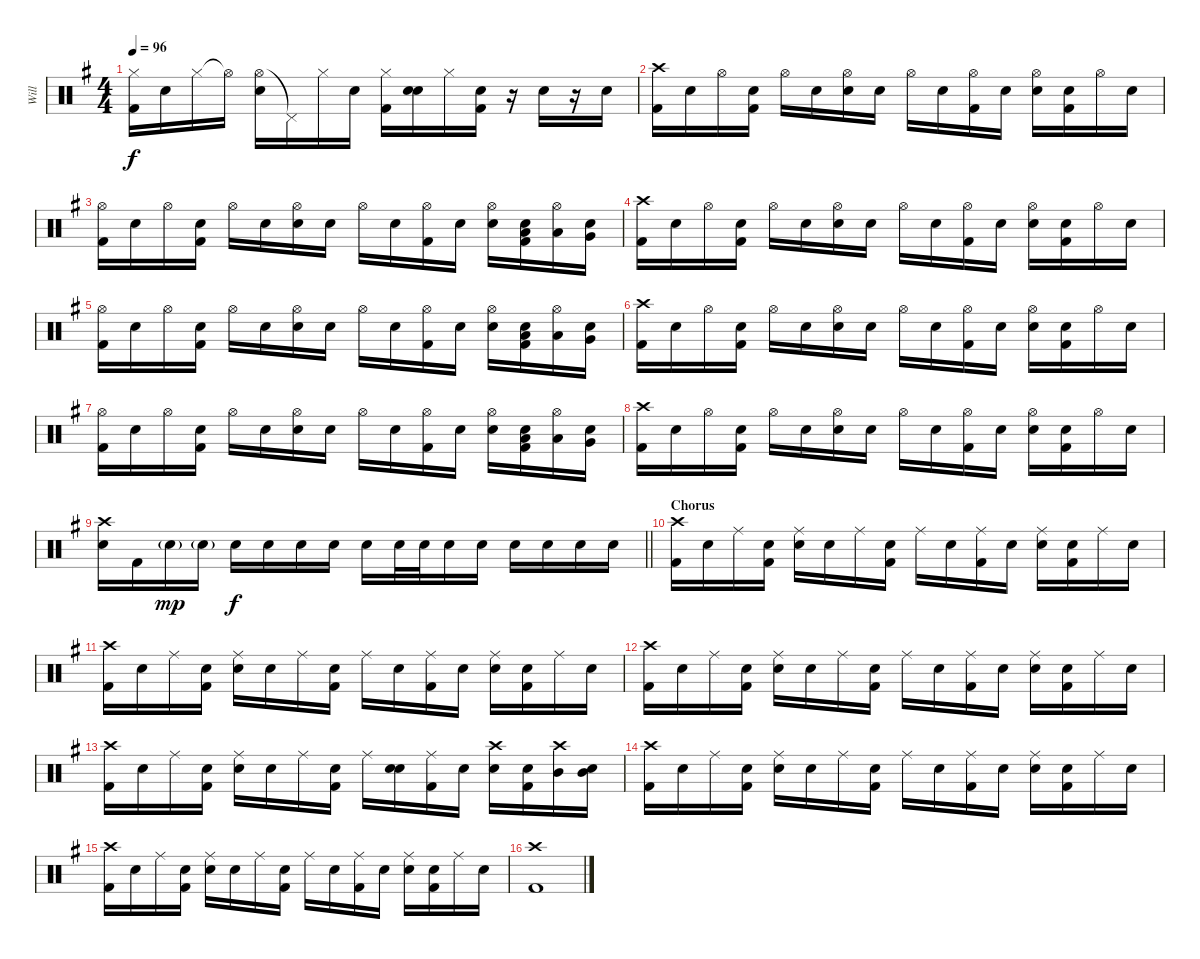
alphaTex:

\track ("Will" "Will") {instrument percussion}
\staff {score}
\articulation defaults
\ts (4 4)
\tempo 96
\clef neutral
\ks g
("Hi-Hat (closed)" "Kick (hit) 2").16{dy f} "Snare (hit)".16 "Hi-Hat (closed)".16 "Hi-Hat (open)"{t}.16 ("Hi-Hat (open)" "Snare (hit) 2").16 "Pedal Hi-Hat (hit)"{t}.16 "Hi-Hat (closed)".16 "Snare (hit)".16 ("Hi-Hat (closed)" "Kick (hit) 2").16 ("Snare (hit)" "Snare (hit) 2").16 "Hi-Hat (closed)".16 ("Snare (hit)" "Kick (hit) 2").16 r.16 "Snare (hit)".16 r.16 "Snare (hit)".16 |
("Crash high (hit)" "Kick (hit) 2").16 "Snare (hit)".16 "Hi-Hat (open)".16 ("Snare (hit)" "Kick (hit) 2").16 "Hi-Hat (open)".16 "Snare (hit)".16 ("Hi-Hat (open)" "Snare (hit) 2").16 "Snare (hit)".16 "Hi-Hat (open)".16 "Snare (hit)".16 ("Hi-Hat (open)" "Kick (hit) 2").16 "Snare (hit)".16 ("Hi-Hat (open)" "Snare (hit) 2").16 ("Snare (hit)" "Kick (hit) 2").16 "Hi-Hat (open)".16 "Snare (hit)".16 |
("Hi-Hat (open)" "Kick (hit) 2").16 "Snare (hit)".16 "Hi-Hat (open)".16 ("Snare (hit)" "Kick (hit) 2").16 "Hi-Hat (open)".16 "Snare (hit)".16 ("Hi-Hat (open)" "Snare (hit) 2").16 "Snare (hit)".16 "Hi-Hat (open)".16 "Snare (hit)".16 ("Hi-Hat (open)" "Kick (hit) 2").16 "Snare (hit)".16 ("Hi-Hat (open)" "Snare (hit) 2").16 ("Snare (hit)" "Low Tom (hit)" "Kick (hit) 2").16 ("Hi-Hat (open)" "Low Tom (hit)").16 ("Snare (hit)" "Very Low Tom (hit)").16 |
("Crash high (hit)" "Kick (hit) 2").16 "Snare (hit)".16 "Hi-Hat (open)".16 ("Snare (hit)" "Kick (hit) 2").16 "Hi-Hat (open)".16 "Snare (hit)".16 ("Hi-Hat (open)" "Snare (hit) 2").16 "Snare (hit)".16 "Hi-Hat (open)".16 "Snare (hit)".16 ("Hi-Hat (open)" "Kick (hit) 2").16 "Snare (hit)".16 ("Hi-Hat (open)" "Snare (hit) 2").16 ("Snare (hit)" "Kick (hit) 2").16 "Hi-Hat (open)".16 "Snare (hit)".16 |
("Hi-Hat (open)" "Kick (hit) 2").16 "Snare (hit)".16 "Hi-Hat (open)".16 ("Snare (hit)" "Kick (hit) 2").16 "Hi-Hat (open)".16 "Snare (hit)".16 ("Hi-Hat (open)" "Snare (hit) 2").16 "Snare (hit)".16 "Hi-Hat (open)".16 "Snare (hit)".16 ("Hi-Hat (open)" "Kick (hit) 2").16 "Snare (hit)".16 ("Hi-Hat (open)" "Snare (hit) 2").16 ("Snare (hit)" "Low Tom (hit)" "Kick (hit) 2").16 ("Hi-Hat (open)" "Low Tom (hit)").16 ("Snare (hit)" "Very Low Tom (hit)").16 |
("Crash high (hit)" "Kick (hit) 2").16 "Snare (hit)".16 "Hi-Hat (open)".16 ("Snare (hit)" "Kick (hit) 2").16 "Hi-Hat (open)".16 "Snare (hit)".16 ("Hi-Hat (open)" "Snare (hit) 2").16 "Snare (hit)".16 "Hi-Hat (open)".16 "Snare (hit)".16 ("Hi-Hat (open)" "Kick (hit) 2").16 "Snare (hit)".16 ("Hi-Hat (open)" "Snare (hit) 2").16 ("Snare (hit)" "Kick (hit) 2").16 "Hi-Hat (open)".16 "Snare (hit)".16 |
("Hi-Hat (open)" "Kick (hit) 2").16 "Snare (hit)".16 "Hi-Hat (open)".16 ("Snare (hit)" "Kick (hit) 2").16 "Hi-Hat (open)".16 "Snare (hit)".16 ("Hi-Hat (open)" "Snare (hit) 2").16 "Snare (hit)".16 "Hi-Hat (open)".16 "Snare (hit)".16 ("Hi-Hat (open)" "Kick (hit) 2").16 "Snare (hit)".16 ("Hi-Hat (open)" "Snare (hit) 2").16 ("Snare (hit)" "Low Tom (hit)" "Kick (hit) 2").16 ("Hi-Hat (open)" "Low Tom (hit)").16 ("Snare (hit)" "Very Low Tom (hit)").16 |
("Crash high (hit)" "Kick (hit) 2").16 "Snare (hit)".16 "Hi-Hat (open)".16 ("Snare (hit)" "Kick (hit) 2").16 "Hi-Hat (open)".16 "Snare (hit)".16 ("Hi-Hat (open)" "Snare (hit) 2").16 "Snare (hit)".16 "Hi-Hat (open)".16 "Snare (hit)".16 ("Hi-Hat (open)" "Kick (hit) 2").16 "Snare (hit)".16 ("Hi-Hat (open)" "Snare (hit) 2").16 ("Snare (hit)" "Kick (hit) 2").16 "Hi-Hat (open)".16 "Snare (hit)".16 |
\barLineRight lightlight
("Crash high (hit)" "Snare (hit) 2").16 "Kick (hit) 2".16 "Snare (hit) 2"{g}.16{dy mp} "Snare (hit) 2"{g}.16 "Snare (hit) 2".16{dy f} "Snare (hit) 2".16 "Snare (hit) 2".16 "Snare (hit) 2".16 "Snare (hit) 2".16 "Snare (hit) 2".32 "Snare (hit) 2".32 "Snare (hit) 2".16 "Snare (hit) 2".16 "Snare (hit) 2".16 "Snare (hit) 2".16 "Snare (hit) 2".16 "Snare (hit) 2".16 |
\section ("" "Chorus")
("Crash high (hit)" "Kick (hit) 2").16 "Snare (hit)".16 "Ride (middle)".16 ("Snare (hit)" "Kick (hit) 2").16 ("Ride (middle)" "Snare (hit) 2").16 "Snare (hit)".16 "Ride (middle)".16 ("Snare (hit)" "Kick (hit) 2").16 "Ride (middle)".16 "Snare (hit)".16 ("Ride (middle)" "Kick (hit) 2").16 "Snare (hit)".16 ("Ride (middle)" "Snare (hit) 2").16 ("Snare (hit)" "Kick (hit) 2").16 "Ride (middle)".16 "Snare (hit)".16 |
("Crash high (hit)" "Kick (hit) 2").16 "Snare (hit)".16 "Ride (middle)".16 ("Snare (hit)" "Kick (hit) 2").16 ("Ride (middle)" "Snare (hit) 2").16 "Snare (hit)".16 "Ride (middle)".16 ("Snare (hit)" "Kick (hit) 2").16 "Ride (middle)".16 "Snare (hit)".16 ("Ride (middle)" "Kick (hit) 2").16 "Snare (hit)".16 ("Ride (middle)" "Snare (hit) 2").16 ("Snare (hit)" "Kick (hit) 2").16 "Ride (middle)".16 "Snare (hit)".16 |
("Crash high (hit)" "Kick (hit) 2").16 "Snare (hit)".16 "Ride (middle)".16 ("Snare (hit)" "Kick (hit) 2").16 ("Ride (middle)" "Snare (hit) 2").16 "Snare (hit)".16 "Ride (middle)".16 ("Snare (hit)" "Kick (hit) 2").16 "Ride (middle)".16 "Snare (hit)".16 ("Ride (middle)" "Kick (hit) 2").16 "Snare (hit)".16 ("Ride (middle)" "Snare (hit) 2").16 ("Snare (hit)" "Kick (hit) 2").16 "Ride (middle)".16 "Snare (hit)".16 |
("Crash high (hit)" "Kick (hit) 2").16 "Snare (hit)".16 "Ride (middle)".16 ("Snare (hit)" "Kick (hit) 2").16 ("Ride (middle)" "Snare (hit) 2").16 "Snare (hit)".16 "Ride (middle)".16 ("Snare (hit)" "Kick (hit) 2").16 "Ride (middle)".16 ("Snare (hit)" "Snare (hit) 2").16 ("Ride (middle)" "Kick (hit) 2").16 "Snare (hit)".16 ("Crash high (hit)" "Snare (hit) 2").16 ("Snare (hit)" "Kick (hit) 2").16 ("Crash high (hit)" "Mid Tom (hit)").16 ("Snare (hit)" "Mid Tom (hit)").16 |
("Crash high (hit)" "Kick (hit) 2").16 "Snare (hit)".16 "Ride (middle)".16 ("Snare (hit)" "Kick (hit) 2").16 ("Ride (middle)" "Snare (hit) 2").16 "Snare (hit)".16 "Ride (middle)".16 ("Snare (hit)" "Kick (hit) 2").16 "Ride (middle)".16 "Snare (hit)".16 ("Ride (middle)" "Kick (hit) 2").16 "Snare (hit)".16 ("Ride (middle)" "Snare (hit) 2").16 ("Snare (hit)" "Kick (hit) 2").16 "Ride (middle)".16 "Snare (hit)".16 |
("Crash high (hit)" "Kick (hit) 2").16 "Snare (hit)".16 "Ride (middle)".16 ("Snare (hit)" "Kick (hit) 2").16 ("Ride (middle)" "Snare (hit) 2").16 "Snare (hit)".16 "Ride (middle)".16 ("Snare (hit)" "Kick (hit) 2").16 "Ride (middle)".16 "Snare (hit)".16 ("Ride (middle)" "Kick (hit) 2").16 "Snare (hit)".16 ("Ride (middle)" "Snare (hit) 2").16 ("Snare (hit)" "Kick (hit) 2").16 "Ride (middle)".16 "Snare (hit)".16 |
("Crash high (hit)" "Kick (hit) 2").1
